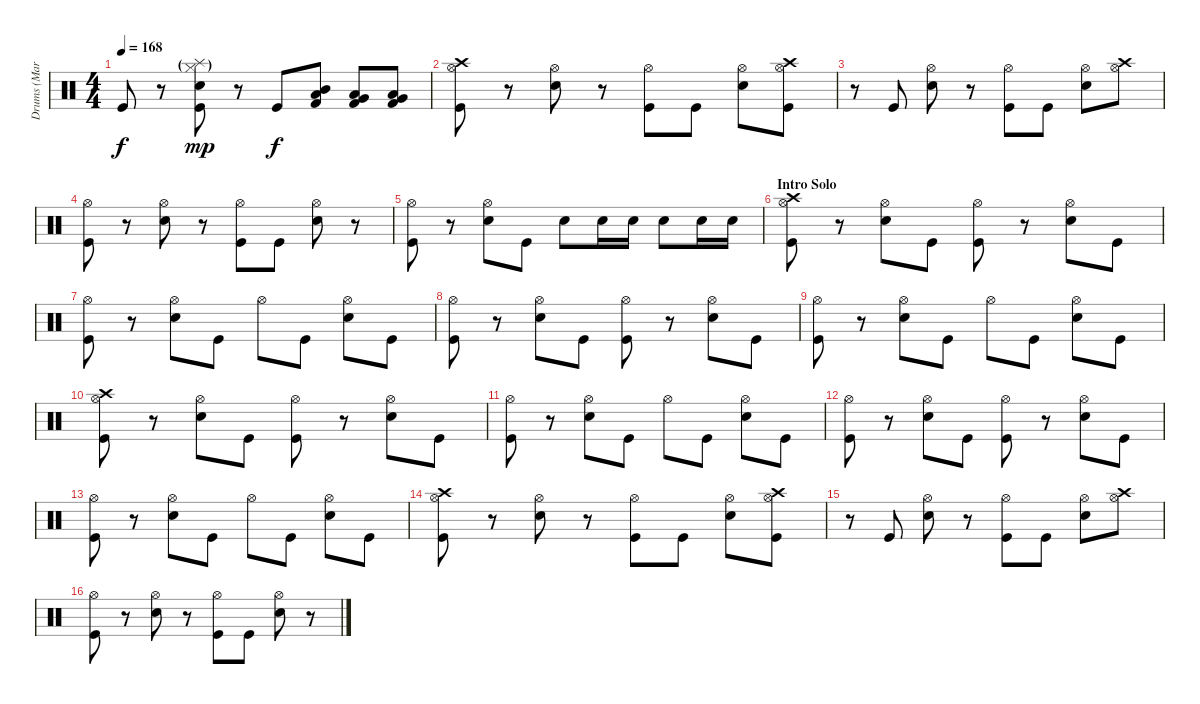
\track ("Drums (Mark Michals)" "Drums (Mar") {instrument percussion}
\staff {score}
\articulation defaults
\ts (4 4)
\tempo 168
\clef neutral
\ks c "Kick (hit)".8{dy f}
r.8 ("Hi-Hat (closed)"{g} "Snare (hit) 2" "Splash (hit)"{g} "Kick (hit)").8{dy mp} r.8 "Kick (hit)".8{dy f} ("Low Tom (hit)" "Mid Tom (hit)" "Kick (hit) 2").8 ("Very Low Tom (hit)" "Low Tom (hit)" "Kick (hit) 2").8 ("Low Floor Tom (hit)" "Very Low Tom (hit)" "Kick (hit) 2").8 |
("Hi-Hat (open)" "Crash high (hit)" "Kick (hit)").8 r.8 ("Hi-Hat (open)" "Snare (hit) 2").8 r.8 ("Hi-Hat (open)" "Kick (hit)").8 "Kick (hit)".8 ("Hi-Hat (open)" "Snare (hit) 2").8 ("Hi-Hat (open)" "Crash high (hit)" "Kick (hit)").8 |
r.8 "Kick (hit)".8 ("Hi-Hat (open)" "Snare (hit) 2").8 r.8 ("Hi-Hat (open)" "Kick (hit)").8 "Kick (hit)".8 ("Hi-Hat (open)" "Snare (hit) 2").8 ("Hi-Hat (open)" "Crash high (hit)").8 |
("Hi-Hat (open)" "Kick (hit)").8 r.8 ("Hi-Hat (open)" "Snare (hit) 2").8 r.8 ("Hi-Hat (open)" "Kick (hit)").8 "Kick (hit)".8 ("Hi-Hat (open)" "Snare (hit) 2").8 r.8 |
("Hi-Hat (open)" "Kick (hit)").8 r.8 ("Hi-Hat (open)" "Snare (hit) 2").8 "Kick (hit)".8 "Snare (hit) 2".8 "Snare (hit) 2".16 "Snare (hit) 2".16 "Snare (hit) 2".8 "Snare (hit) 2".16 "Snare (hit) 2".16 |
\section ("" "Intro Solo")
("Hi-Hat (open)" "Crash high (hit)" "Kick (hit)").8 r.8 ("Hi-Hat (open)" "Snare (hit) 2").8 "Kick (hit)".8 ("Hi-Hat (open)" "Kick (hit)").8 r.8 ("Hi-Hat (open)" "Snare (hit) 2").8 "Kick (hit)".8 |
("Hi-Hat (open)" "Kick (hit)").8 r.8 ("Hi-Hat (open)" "Snare (hit) 2").8 "Kick (hit)".8 "Hi-Hat (open)".8 "Kick (hit)".8 ("Hi-Hat (open)" "Snare (hit) 2").8 "Kick (hit)".8 |
("Hi-Hat (open)" "Kick (hit)").8 r.8 ("Hi-Hat (open)" "Snare (hit) 2").8 "Kick (hit)".8 ("Hi-Hat (open)" "Kick (hit)").8 r.8 ("Hi-Hat (open)" "Snare (hit) 2").8 "Kick (hit)".8 |
("Hi-Hat (open)" "Kick (hit)").8 r.8 ("Hi-Hat (open)" "Snare (hit) 2").8 "Kick (hit)".8 "Hi-Hat (open)".8 "Kick (hit)".8 ("Hi-Hat (open)" "Snare (hit) 2").8 "Kick (hit)".8 |
("Hi-Hat (open)" "Crash high (hit)" "Kick (hit)").8 r.8 ("Hi-Hat (open)" "Snare (hit) 2").8 "Kick (hit)".8 ("Hi-Hat (open)" "Kick (hit)").8 r.8 ("Hi-Hat (open)" "Snare (hit) 2").8 "Kick (hit)".8 |
("Hi-Hat (open)" "Kick (hit)").8 r.8 ("Hi-Hat (open)" "Snare (hit) 2").8 "Kick (hit)".8 "Hi-Hat (open)".8 "Kick (hit)".8 ("Hi-Hat (open)" "Snare (hit) 2").8 "Kick (hit)".8 |
("Hi-Hat (open)" "Kick (hit)").8 r.8 ("Hi-Hat (open)" "Snare (hit) 2").8 "Kick (hit)".8 ("Hi-Hat (open)" "Kick (hit)").8 r.8 ("Hi-Hat (open)" "Snare (hit) 2").8 "Kick (hit)".8 |
("Hi-Hat (open)" "Kick (hit)").8 r.8 ("Hi-Hat (open)" "Snare (hit) 2").8 "Kick (hit)".8 "Hi-Hat (open)".8 "Kick (hit)".8 ("Hi-Hat (open)" "Snare (hit) 2").8 "Kick (hit)".8 |
("Hi-Hat (open)" "Crash high (hit)" "Kick (hit)").8 r.8 ("Hi-Hat (open)" "Snare (hit) 2").8 r.8 ("Hi-Hat (open)" "Kick (hit)").8 "Kick (hit)".8 ("Hi-Hat (open)" "Snare (hit) 2").8 ("Hi-Hat (open)" "Crash high (hit)" "Kick (hit)").8 |
r.8 "Kick (hit)".8 ("Hi-Hat (open)" "Snare (hit) 2").8 r.8 ("Hi-Hat (open)" "Kick (hit)").8 "Kick (hit)".8 ("Hi-Hat (open)" "Snare (hit) 2").8 ("Hi-Hat (open)" "Crash high (hit)").8 |
("Hi-Hat (open)" "Kick (hit)").8 r.8 ("Hi-Hat (open)" "Snare (hit) 2").8 r.8 ("Hi-Hat (open)" "Kick (hit)").8 "Kick (hit)".8 ("Hi-Hat (open)" "Snare (hit) 2").8 r.8
